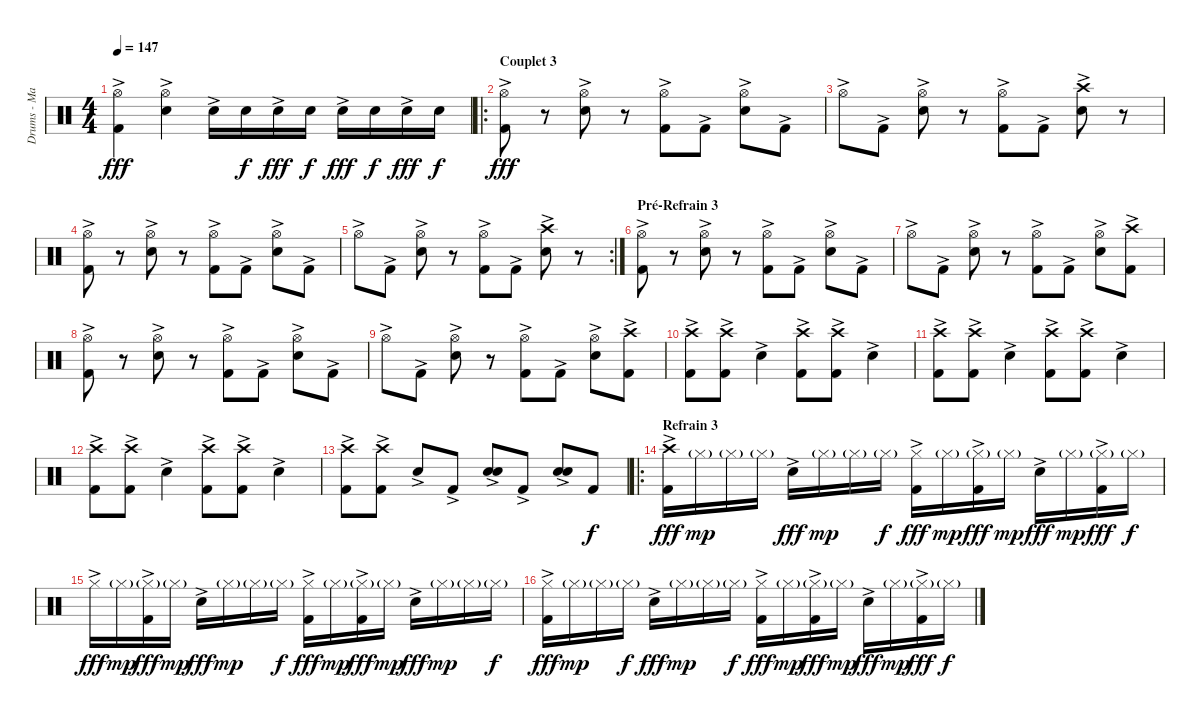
\track ("Drums - Manu" "Drums - Ma") {instrument percussion}
\staff {score}
\articulation defaults
\ts (4 4)
\tempo 147
\clef neutral
\ks c
("Hi-Hat (open)"{ac} "Kick (hit) 2"{ac}).4{dy fff} ("Hi-Hat (open)" "Snare (hit) 2"{ac}).4 "Snare (hit) 2"{ac}.16 "Snare (hit) 2".16{dy f} "Snare (hit) 2"{ac}.16{dy fff} "Snare (hit) 2".16{dy f} "Snare (hit) 2"{ac}.16{dy fff} "Snare (hit) 2".16{dy f} "Snare (hit) 2"{ac}.16{dy fff} "Snare (hit) 2".16{dy f} |
\ro
\section ("" "Couplet 3")
("Hi-Hat (open)"{ac} "Kick (hit) 2"{ac}).8{dy fff} r.8 ("Hi-Hat (open)"{ac} "Snare (hit) 2"{ac}).8 r.8 ("Hi-Hat (open)"{ac} "Kick (hit) 2"{ac}).8 "Kick (hit) 2"{ac}.8 ("Hi-Hat (open)"{ac} "Snare (hit) 2"{ac}).8 "Kick (hit) 2"{ac}.8 |
"Hi-Hat (open)"{ac}.8 "Kick (hit) 2"{ac}.8 ("Hi-Hat (open)"{ac} "Snare (hit) 2"{ac}).8 r.8 ("Hi-Hat (open)"{ac} "Kick (hit) 2"{ac}).8 "Kick (hit) 2"{ac}.8 ("Crash high (hit)" "Snare (hit) 2"{ac}).8 r.8 |
("Hi-Hat (open)"{ac} "Kick (hit) 2"{ac}).8 r.8 ("Hi-Hat (open)"{ac} "Snare (hit) 2"{ac}).8 r.8 ("Hi-Hat (open)"{ac} "Kick (hit) 2"{ac}).8 "Kick (hit) 2"{ac}.8 ("Hi-Hat (open)"{ac} "Snare (hit) 2"{ac}).8 "Kick (hit) 2"{ac}.8 |
\rc 2 "Hi-Hat (open)"{ac}.8 "Kick (hit) 2"{ac}.8
("Hi-Hat (open)"{ac} "Snare (hit) 2"{ac}).8 r.8 ("Hi-Hat (open)"{ac} "Kick (hit) 2"{ac}).8 "Kick (hit) 2"{ac}.8 ("Crash high (hit)" "Snare (hit) 2"{ac}).8 r.8 |
\section ("" "Pré-Refrain 3")
("Hi-Hat (open)"{ac} "Kick (hit) 2"{ac}).8 r.8 ("Hi-Hat (open)"{ac} "Snare (hit) 2"{ac}).8 r.8 ("Hi-Hat (open)"{ac} "Kick (hit) 2"{ac}).8 "Kick (hit) 2"{ac}.8 ("Hi-Hat (open)"{ac} "Snare (hit) 2"{ac}).8 "Kick (hit) 2"{ac}.8 |
"Hi-Hat (open)"{ac}.8 "Kick (hit) 2"{ac}.8 ("Hi-Hat (open)"{ac} "Snare (hit) 2"{ac}).8 r.8 ("Hi-Hat (open)"{ac} "Kick (hit) 2"{ac}).8 "Kick (hit) 2"{ac}.8 ("Hi-Hat (open)"{ac} "Snare (hit) 2"{ac}).8 ("Crash high (hit)"{ac} "Kick (hit) 2"{ac}).8 |
("Hi-Hat (open)"{ac} "Kick (hit) 2"{ac}).8 r.8 ("Hi-Hat (open)"{ac} "Snare (hit) 2"{ac}).8 r.8 ("Hi-Hat (open)"{ac} "Kick (hit) 2"{ac}).8 "Kick (hit) 2"{ac}.8 ("Hi-Hat (open)"{ac} "Snare (hit) 2"{ac}).8 "Kick (hit) 2"{ac}.8 |
"Hi-Hat (open)"{ac}.8 "Kick (hit) 2"{ac}.8 ("Hi-Hat (open)"{ac} "Snare (hit) 2"{ac}).8 r.8 ("Hi-Hat (open)"{ac} "Kick (hit) 2"{ac}).8 "Kick (hit) 2"{ac}.8 ("Hi-Hat (open)"{ac} "Snare (hit) 2"{ac}).8 ("Crash high (hit)"{ac} "Kick (hit) 2"{ac}).8 |
("Crash high (hit)"{ac} "Kick (hit) 2"{ac}).8 ("Crash high (hit)"{ac} "Kick (hit) 2").8 "Snare (hit) 2"{ac}.4 ("Crash high (hit)"{ac} "Kick (hit) 2"{ac}).8 ("Crash high (hit)"{ac} "Kick (hit) 2"{ac}).8 "Snare (hit) 2"{ac}.4 |
("Crash high (hit)"{ac} "Kick (hit) 2"{ac}).8 ("Crash high (hit)"{ac} "Kick (hit) 2").8 "Snare (hit) 2"{ac}.4 ("Crash high (hit)"{ac} "Kick (hit) 2"{ac}).8 ("Crash high (hit)"{ac} "Kick (hit) 2"{ac}).8 "Snare (hit) 2"{ac}.4 |
("Crash high (hit)"{ac} "Kick (hit) 2"{ac}).8 ("Crash high (hit)"{ac} "Kick (hit) 2").8 "Snare (hit) 2"{ac}.4 ("Crash high (hit)"{ac} "Kick (hit) 2"{ac}).8 ("Crash high (hit)"{ac} "Kick (hit) 2"{ac}).8 "Snare (hit) 2"{ac}.4 |
("Crash high (hit)"{ac} "Kick (hit) 2"{ac}).8 ("Crash high (hit)"{ac} "Kick (hit) 2").8 "Snare (hit) 2"{ac}.8 "Kick (hit) 2"{ac}.8 ("Snare (hit) 2"{ac} "Snare (hit) 2"{ac}).8 "Kick (hit) 2"{ac}.8 ("Snare (hit) 2"{ac} "Snare (hit) 2"{ac}).8 "Kick (hit) 2".8{dy f} |
\ro
\section ("" "Refrain 3")
("Crash high (hit)"{ac} "Kick (hit) 2"{ac}).16{dy fff} "Hi-Hat (closed)"{g}.16{dy mp} "Hi-Hat (closed)"{g}.16 "Hi-Hat (closed)"{g}.16 "Snare (hit) 2"{ac}.16{dy fff} "Hi-Hat (closed)"{g}.16{dy mp} "Hi-Hat (closed)"{g}.16 "Hi-Hat (closed)"{g}.16{dy f} ("Hi-Hat (closed)"{ac} "Kick (hit) 2"{ac}).16{dy fff} "Hi-Hat (closed)"{g}.16{dy mp} ("Hi-Hat (closed)"{g} "Kick (hit) 2"{ac}).16{dy fff} "Hi-Hat (closed)"{g}.16{dy mp} "Snare (hit) 2"{ac}.16{dy fff} "Hi-Hat (closed)"{g}.16{dy mp} ("Hi-Hat (closed)"{g} "Kick (hit) 2"{ac}).16{dy fff} "Hi-Hat (closed)"{g}.16{dy f} |
"Hi-Hat (closed)"{ac}.16{dy fff} "Hi-Hat (closed)"{g}.16{dy mp} ("Hi-Hat (closed)"{g} "Kick (hit) 2"{ac}).16{dy fff} "Hi-Hat (closed)"{g}.16{dy mp} "Snare (hit) 2"{ac}.16{dy fff} "Hi-Hat (closed)"{g}.16{dy mp} "Hi-Hat (closed)"{g}.16 "Hi-Hat (closed)"{g}.16{dy f} ("Hi-Hat (closed)"{ac} "Kick (hit) 2"{ac}).16{dy fff} "Hi-Hat (closed)"{g}.16{dy mp} ("Hi-Hat (closed)"{g} "Kick (hit) 2"{ac}).16{dy fff} "Hi-Hat (closed)"{g}.16{dy mp} "Snare (hit) 2"{ac}.16{dy fff} "Hi-Hat (closed)"{g}.16{dy mp} "Hi-Hat (closed)"{g}.16 "Hi-Hat (closed)"{g}.16{dy f} |
("Hi-Hat (closed)"{ac} "Kick (hit) 2"{ac}).16{dy fff} "Hi-Hat (closed)"{g}.16{dy mp} "Hi-Hat (closed)"{g}.16 "Hi-Hat (closed)"{g}.16{dy f} "Snare (hit) 2"{ac}.16{dy fff} "Hi-Hat (closed)"{g}.16{dy mp} "Hi-Hat (closed)"{g}.16 "Hi-Hat (closed)"{g}.16{dy f} ("Hi-Hat (closed)"{ac} "Kick (hit) 2"{ac}).16{dy fff} "Hi-Hat (closed)"{g}.16{dy mp} ("Hi-Hat (closed)"{g} "Kick (hit) 2"{ac}).16{dy fff} "Hi-Hat (closed)"{g}.16{dy mp} "Snare (hit) 2"{ac}.16{dy fff} "Hi-Hat (closed)"{g}.16{dy mp} ("Hi-Hat (closed)"{g} "Kick (hit) 2"{ac}).16{dy fff} "Hi-Hat (closed)"{g}.16{dy f}
